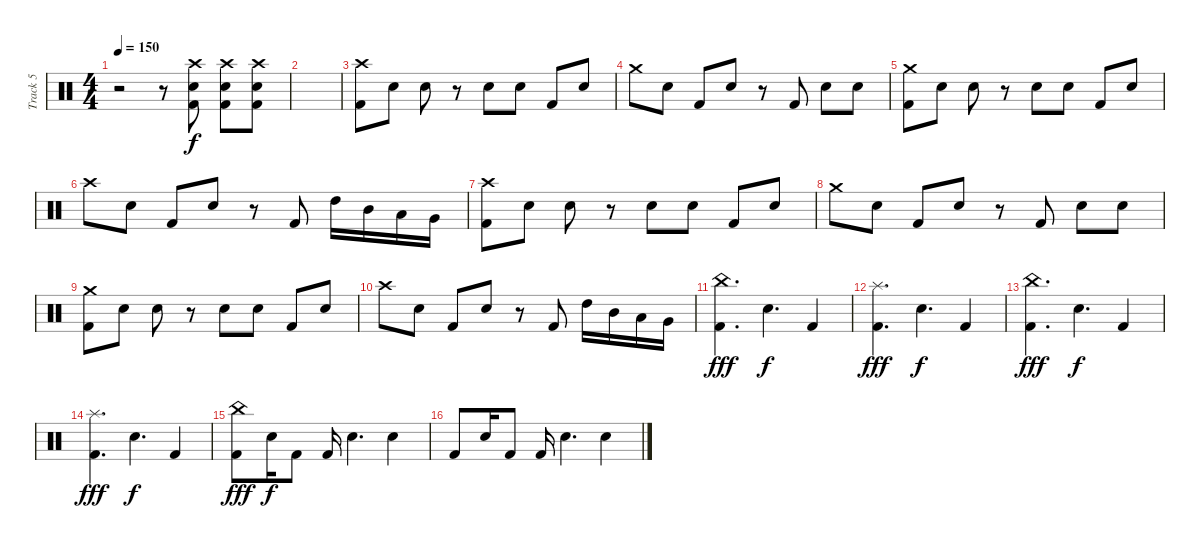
\track ("Track 5" "Track 5") {instrument percussion}
\staff {score}
\articulation defaults
\ts (4 4)
\tempo 150
\clef neutral
\ks c
r.2{dy f} r.8 ("Crash high (hit)" "Electric Snare (hit)" "Kick (hit) 2").8 ("Crash high (hit)" "Electric Snare (hit)" "Kick (hit) 2").8 ("Crash high (hit)" "Electric Snare (hit)" "Kick (hit) 2").8 |
|
("Crash high (hit)" "Kick (hit) 2").8 "Electric Snare (hit)".8 "Electric Snare (hit)".8 r.8 "Electric Snare (hit)".8 "Electric Snare (hit)".8 "Kick (hit) 2".8 "Electric Snare (hit)".8 |
"Crash medium (hit)".8 "Electric Snare (hit)".8 "Kick (hit) 2".8 "Electric Snare (hit)".8 r.8 "Kick (hit) 2".8 "Electric Snare (hit)".8 "Electric Snare (hit)".8 |
("Crash medium (hit)" "Kick (hit) 2").8 "Electric Snare (hit)".8 "Electric Snare (hit)".8 r.8 "Electric Snare (hit)".8 "Electric Snare (hit)".8 "Kick (hit) 2".8 "Electric Snare (hit)".8 |
"Crash high (hit)".8 "Electric Snare (hit)".8 "Kick (hit) 2".8 "Electric Snare (hit)".8 r.8 "Kick (hit) 2".8 "High Tom (hit)".16 "Mid Tom (hit)".16 "Low Tom (hit)".16 "Very Low Tom (hit)".16 |
("Crash high (hit)" "Kick (hit) 2").8 "Electric Snare (hit)".8 "Electric Snare (hit)".8 r.8 "Electric Snare (hit)".8 "Electric Snare (hit)".8 "Kick (hit) 2".8 "Electric Snare (hit)".8 |
"Crash medium (hit)".8 "Electric Snare (hit)".8 "Kick (hit) 2".8 "Electric Snare (hit)".8 r.8 "Kick (hit) 2".8 "Electric Snare (hit)".8 "Electric Snare (hit)".8 |
("Crash medium (hit)" "Kick (hit) 2").8 "Electric Snare (hit)".8 "Electric Snare (hit)".8 r.8 "Electric Snare (hit)".8 "Electric Snare (hit)".8 "Kick (hit) 2".8 "Electric Snare (hit)".8 |
"Crash high (hit)".8 "Electric Snare (hit)".8 "Kick (hit) 2".8 "Electric Snare (hit)".8 r.8 "Kick (hit) 2".8 "High Tom (hit)".16 "Mid Tom (hit)".16 "Low Tom (hit)".16 "Very Low Tom (hit)".16 |
("China (hit)" "Kick (hit) 2").4{d dy fff} "Electric Snare (hit)".4{d dy f} "Kick (hit) 2".4 |
("Splash (hit)" "Kick (hit) 2").4{d dy fff} "Electric Snare (hit)".4{d dy f} "Kick (hit) 2".4 |
("China (hit)" "Kick (hit) 2").4{d dy fff} "Electric Snare (hit)".4{d dy f} "Kick (hit) 2".4 |
("Splash (hit)" "Kick (hit) 2").4{d dy fff} "Electric Snare (hit)".4{d dy f} "Kick (hit) 2".4 |
("China (hit)" "Kick (hit) 2").8{dy fff} "Electric Snare (hit)".16{dy f} "Kick (hit) 2".8 "Kick (hit) 2".16 "Electric Snare (hit)".4{d} "Electric Snare (hit)".4 |
"Kick (hit) 2".8 "Electric Snare (hit)".16 "Kick (hit) 2".8 "Kick (hit) 2".16 "Electric Snare (hit)".4{d} "Electric Snare (hit)".4
